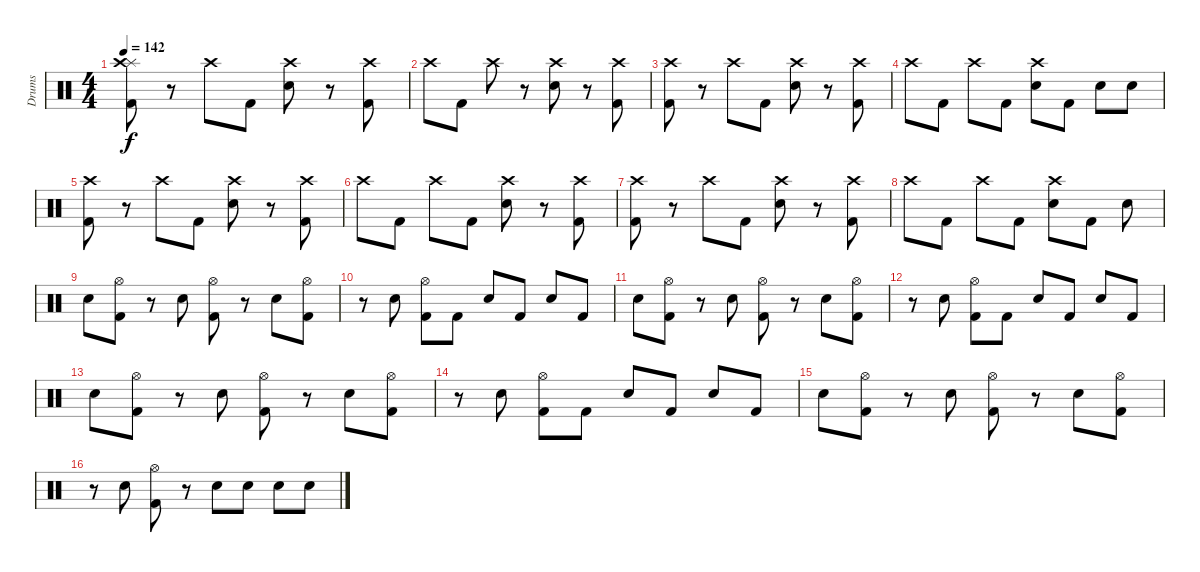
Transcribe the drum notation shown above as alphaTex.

\track ("Drums" "Drums") {instrument percussion}
\staff {score}
\articulation defaults
\ts (4 4)
\tempo 142
\clef neutral
\ks c
("Splash (hit)" "Crash high (hit)" "Kick (hit) 2").8{dy f} r.8 "Crash high (hit)".8 "Kick (hit) 2".8 ("Crash high (hit)" "Snare (hit) 2").8 r.8 ("Crash high (hit)" "Kick (hit) 2").8 |
"Crash high (hit)".8 "Kick (hit) 2".8 "Crash high (hit)".8 r.8 ("Crash high (hit)" "Snare (hit) 2").8 r.8 ("Crash high (hit)" "Kick (hit) 2").8 |
("Crash high (hit)" "Kick (hit) 2").8 r.8 "Crash high (hit)".8 "Kick (hit) 2".8 ("Crash high (hit)" "Snare (hit) 2").8 r.8 ("Crash high (hit)" "Kick (hit) 2").8 |
"Crash high (hit)".8 "Kick (hit) 2".8 "Crash high (hit)".8 "Kick (hit) 2".8 ("Crash high (hit)" "Snare (hit) 2").8 "Kick (hit) 2".8 "Snare (hit) 2".8 "Snare (hit) 2".8 |
("Crash high (hit)" "Kick (hit) 2").8 r.8 "Crash high (hit)".8 "Kick (hit) 2".8 ("Crash high (hit)" "Snare (hit) 2").8 r.8 ("Crash high (hit)" "Kick (hit) 2").8 |
"Crash high (hit)".8 "Kick (hit) 2".8 "Crash high (hit)".8 "Kick (hit) 2".8 ("Crash high (hit)" "Snare (hit) 2").8 r.8 ("Crash high (hit)" "Kick (hit) 2").8 |
("Crash high (hit)" "Kick (hit) 2").8 r.8 "Crash high (hit)".8 "Kick (hit) 2".8 ("Crash high (hit)" "Snare (hit) 2").8 r.8 ("Crash high (hit)" "Kick (hit) 2").8 |
"Crash high (hit)".8 "Kick (hit) 2".8 "Crash high (hit)".8 "Kick (hit) 2".8 ("Crash high (hit)" "Snare (hit) 2").8 "Kick (hit) 2".8 "Snare (hit) 2".8 |
"Snare (hit) 2".8 ("Hi-Hat (open)" "Kick (hit) 2").8 r.8 "Snare (hit) 2".8 ("Hi-Hat (open)" "Kick (hit) 2").8 r.8 "Snare (hit) 2".8 ("Hi-Hat (open)" "Kick (hit) 2").8 |
r.8 "Snare (hit) 2".8 ("Hi-Hat (open)" "Kick (hit) 2").8 "Kick (hit) 2".8 "Snare (hit) 2".8 "Kick (hit) 2".8 "Snare (hit) 2".8 "Kick (hit) 2".8 |
"Snare (hit) 2".8 ("Hi-Hat (open)" "Kick (hit) 2").8 r.8 "Snare (hit) 2".8 ("Hi-Hat (open)" "Kick (hit) 2").8 r.8 "Snare (hit) 2".8 ("Hi-Hat (open)" "Kick (hit) 2").8 |
r.8 "Snare (hit) 2".8 ("Hi-Hat (open)" "Kick (hit) 2").8 "Kick (hit) 2".8 "Snare (hit) 2".8 "Kick (hit) 2".8 "Snare (hit) 2".8 "Kick (hit) 2".8 |
"Snare (hit) 2".8 ("Hi-Hat (open)" "Kick (hit) 2").8 r.8 "Snare (hit) 2".8 ("Hi-Hat (open)" "Kick (hit) 2").8 r.8 "Snare (hit) 2".8 ("Hi-Hat (open)" "Kick (hit) 2").8 |
r.8 "Snare (hit) 2".8 ("Hi-Hat (open)" "Kick (hit) 2").8 "Kick (hit) 2".8 "Snare (hit) 2".8 "Kick (hit) 2".8 "Snare (hit) 2".8 "Kick (hit) 2".8 |
"Snare (hit) 2".8 ("Hi-Hat (open)" "Kick (hit) 2").8 r.8 "Snare (hit) 2".8 ("Hi-Hat (open)" "Kick (hit) 2").8 r.8 "Snare (hit) 2".8 ("Hi-Hat (open)" "Kick (hit) 2").8 |
r.8 "Snare (hit) 2".8 ("Hi-Hat (open)" "Kick (hit) 2").8 r.8 "Snare (hit) 2".8 "Snare (hit) 2".8 "Snare (hit) 2".8 "Snare (hit) 2".8
